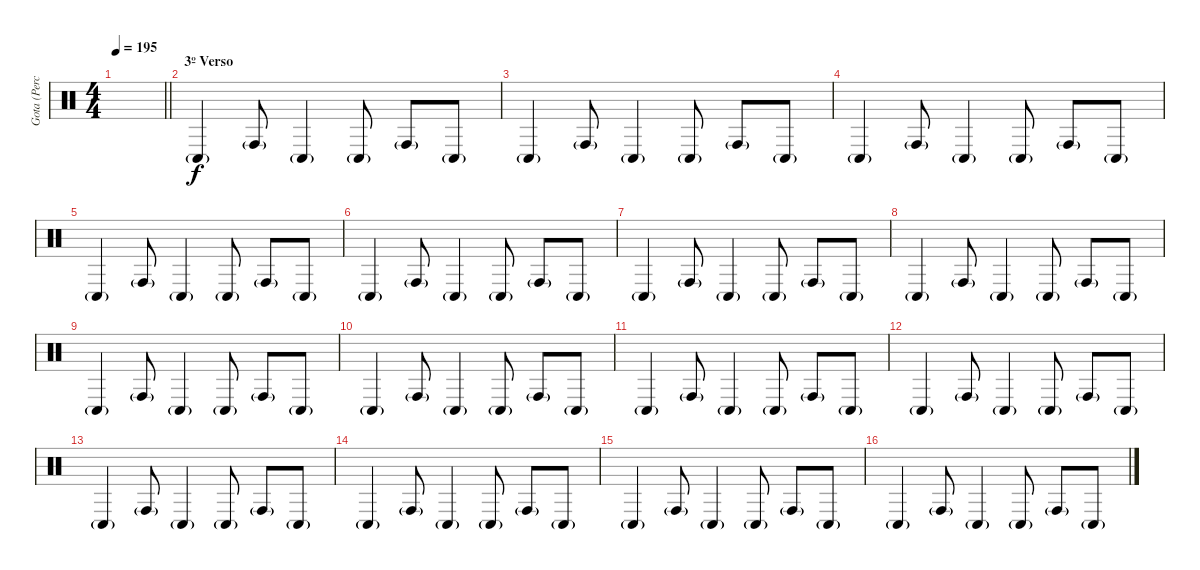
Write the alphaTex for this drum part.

\track ("Gota (Percussion)" "Gota (Perc") {instrument percussion}
\staff {score}
\articulation defaults
\ts (4 4)
\tempo 195
\clef neutral
\barLineRight lightlight
\ks c
|
\section ("" "3º Verso")
"Conga low (hit)"{g}.4 "Conga high (hit)"{g}.8 "Conga low (hit)"{g}.4 "Conga low (hit)"{g}.8 "Conga high (hit)"{g}.8 "Conga low (hit)"{g}.8 |
"Conga low (hit)"{g}.4 "Conga high (hit)"{g}.8 "Conga low (hit)"{g}.4 "Conga low (hit)"{g}.8 "Conga high (hit)"{g}.8 "Conga low (hit)"{g}.8 |
"Conga low (hit)"{g}.4 "Conga high (hit)"{g}.8 "Conga low (hit)"{g}.4 "Conga low (hit)"{g}.8 "Conga high (hit)"{g}.8 "Conga low (hit)"{g}.8 |
"Conga low (hit)"{g}.4 "Conga high (hit)"{g}.8 "Conga low (hit)"{g}.4 "Conga low (hit)"{g}.8 "Conga high (hit)"{g}.8 "Conga low (hit)"{g}.8 |
"Conga low (hit)"{g}.4 "Conga high (hit)"{g}.8 "Conga low (hit)"{g}.4 "Conga low (hit)"{g}.8 "Conga high (hit)"{g}.8 "Conga low (hit)"{g}.8 |
"Conga low (hit)"{g}.4 "Conga high (hit)"{g}.8 "Conga low (hit)"{g}.4 "Conga low (hit)"{g}.8 "Conga high (hit)"{g}.8 "Conga low (hit)"{g}.8 |
"Conga low (hit)"{g}.4 "Conga high (hit)"{g}.8 "Conga low (hit)"{g}.4 "Conga low (hit)"{g}.8 "Conga high (hit)"{g}.8 "Conga low (hit)"{g}.8 |
"Conga low (hit)"{g}.4 "Conga high (hit)"{g}.8 "Conga low (hit)"{g}.4 "Conga low (hit)"{g}.8 "Conga high (hit)"{g}.8 "Conga low (hit)"{g}.8 |
"Conga low (hit)"{g}.4 "Conga high (hit)"{g}.8 "Conga low (hit)"{g}.4 "Conga low (hit)"{g}.8 "Conga high (hit)"{g}.8 "Conga low (hit)"{g}.8 |
"Conga low (hit)"{g}.4 "Conga high (hit)"{g}.8 "Conga low (hit)"{g}.4 "Conga low (hit)"{g}.8 "Conga high (hit)"{g}.8 "Conga low (hit)"{g}.8 |
"Conga low (hit)"{g}.4 "Conga high (hit)"{g}.8 "Conga low (hit)"{g}.4 "Conga low (hit)"{g}.8 "Conga high (hit)"{g}.8 "Conga low (hit)"{g}.8 |
"Conga low (hit)"{g}.4 "Conga high (hit)"{g}.8 "Conga low (hit)"{g}.4 "Conga low (hit)"{g}.8 "Conga high (hit)"{g}.8 "Conga low (hit)"{g}.8 |
"Conga low (hit)"{g}.4 "Conga high (hit)"{g}.8 "Conga low (hit)"{g}.4 "Conga low (hit)"{g}.8 "Conga high (hit)"{g}.8 "Conga low (hit)"{g}.8 |
"Conga low (hit)"{g}.4 "Conga high (hit)"{g}.8 "Conga low (hit)"{g}.4 "Conga low (hit)"{g}.8 "Conga high (hit)"{g}.8 "Conga low (hit)"{g}.8 |
"Conga low (hit)"{g}.4 "Conga high (hit)"{g}.8 "Conga low (hit)"{g}.4 "Conga low (hit)"{g}.8 "Conga high (hit)"{g}.8 "Conga low (hit)"{g}.8
